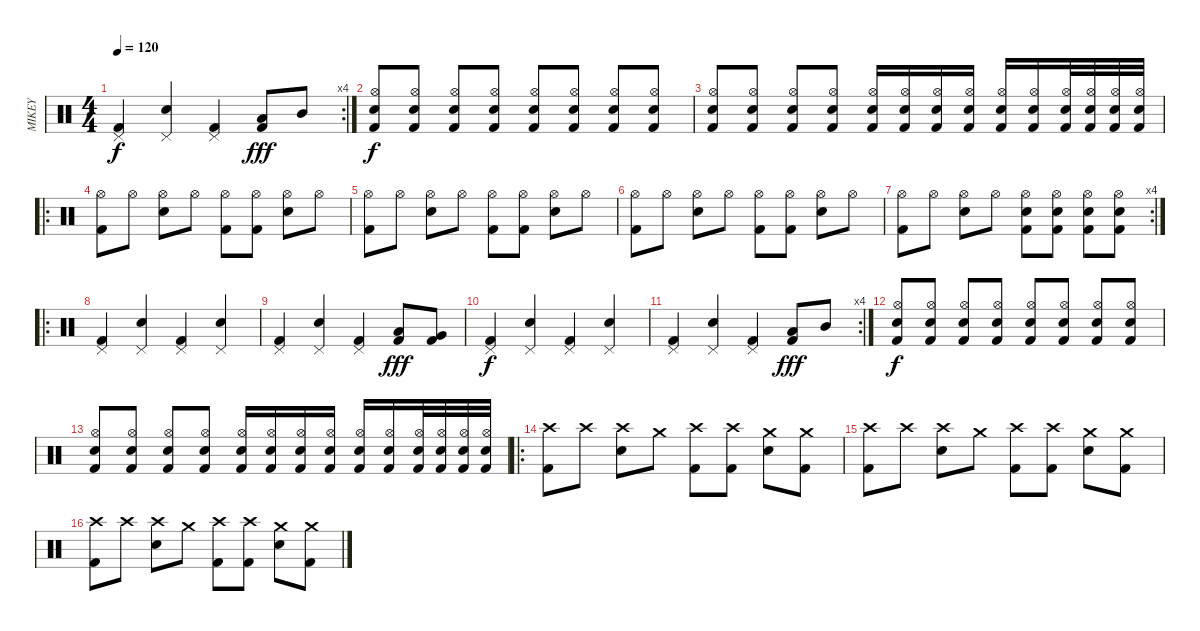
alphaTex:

\track ("MIKEY" "MIKEY") {instrument percussion}
\staff {score}
\articulation defaults
\rc 4
\ts (4 4)
\tempo 120
\clef neutral
\ks c
("Pedal Hi-Hat (hit)" "Kick (hit) 2").4{dy f} ("Pedal Hi-Hat (hit)" "Snare (hit) 2").4 ("Pedal Hi-Hat (hit)" "Kick (hit) 2").4 ("Low Tom (hit)" "Kick (hit) 2").8{dy fff} "Mid Tom (hit)".8 |
("Hi-Hat (open)" "Kick (hit) 2" "Electric Snare (hit)").8{dy f} ("Hi-Hat (open)" "Kick (hit) 2" "Electric Snare (hit)").8 ("Hi-Hat (open)" "Kick (hit) 2" "Electric Snare (hit)").8 ("Hi-Hat (open)" "Kick (hit) 2" "Electric Snare (hit)").8 ("Hi-Hat (open)" "Kick (hit) 2" "Electric Snare (hit)").8 ("Hi-Hat (open)" "Kick (hit) 2" "Electric Snare (hit)").8 ("Hi-Hat (open)" "Kick (hit) 2" "Electric Snare (hit)").8 ("Hi-Hat (open)" "Kick (hit) 2" "Electric Snare (hit)").8 |
("Hi-Hat (open)" "Kick (hit) 2" "Electric Snare (hit)").8 ("Hi-Hat (open)" "Kick (hit) 2" "Electric Snare (hit)").8 ("Hi-Hat (open)" "Kick (hit) 2" "Electric Snare (hit)").8 ("Hi-Hat (open)" "Kick (hit) 2" "Electric Snare (hit)").8 ("Hi-Hat (open)" "Kick (hit) 2" "Electric Snare (hit)").16 ("Hi-Hat (open)" "Kick (hit) 2" "Electric Snare (hit)").16 ("Hi-Hat (open)" "Kick (hit) 2" "Electric Snare (hit)").16 ("Hi-Hat (open)" "Kick (hit) 2" "Electric Snare (hit)").16 ("Hi-Hat (open)" "Kick (hit) 2" "Electric Snare (hit)").16 ("Hi-Hat (open)" "Kick (hit) 2" "Electric Snare (hit)").16 ("Hi-Hat (open)" "Kick (hit) 2" "Electric Snare (hit)").32 ("Hi-Hat (open)" "Kick (hit) 2" "Electric Snare (hit)").32 ("Hi-Hat (open)" "Kick (hit) 2" "Electric Snare (hit)").32 ("Hi-Hat (open)" "Kick (hit) 2" "Electric Snare (hit)").32 |
\ro
("Kick (hit) 2" "Hi-Hat (open)").8 "Hi-Hat (open)".8 ("Snare (hit) 2" "Hi-Hat (open)").8 "Hi-Hat (open)".8 ("Kick (hit) 2" "Hi-Hat (open)").8 ("Kick (hit) 2" "Hi-Hat (open)").8 ("Snare (hit) 2" "Hi-Hat (open)").8 "Hi-Hat (open)".8 |
("Kick (hit) 2" "Hi-Hat (open)").8 "Hi-Hat (open)".8 ("Snare (hit) 2" "Hi-Hat (open)").8 "Hi-Hat (open)".8 ("Kick (hit) 2" "Hi-Hat (open)").8 ("Kick (hit) 2" "Hi-Hat (open)").8 ("Snare (hit) 2" "Hi-Hat (open)").8 "Hi-Hat (open)".8 |
("Kick (hit) 2" "Hi-Hat (open)").8 "Hi-Hat (open)".8 ("Snare (hit) 2" "Hi-Hat (open)").8 "Hi-Hat (open)".8 ("Kick (hit) 2" "Hi-Hat (open)").8 ("Kick (hit) 2" "Hi-Hat (open)").8 ("Snare (hit) 2" "Hi-Hat (open)").8 "Hi-Hat (open)".8 |
\rc 4
("Kick (hit) 2" "Hi-Hat (open)").8 "Hi-Hat (open)".8 ("Snare (hit) 2" "Hi-Hat (open)").8 "Hi-Hat (open)".8 ("Kick (hit) 2" "Snare (hit) 2" "Hi-Hat (open)").8 ("Kick (hit) 2" "Snare (hit) 2" "Hi-Hat (open)").8 ("Kick (hit) 2" "Snare (hit) 2" "Hi-Hat (open)").8 ("Kick (hit) 2" "Snare (hit) 2" "Hi-Hat (open)").8 |
\ro
("Pedal Hi-Hat (hit)" "Kick (hit) 2").4 ("Pedal Hi-Hat (hit)" "Snare (hit) 2").4 ("Pedal Hi-Hat (hit)" "Kick (hit) 2").4 ("Pedal Hi-Hat (hit)" "Snare (hit) 2").4 |
("Pedal Hi-Hat (hit)" "Kick (hit) 2").4 ("Pedal Hi-Hat (hit)" "Snare (hit) 2").4 ("Pedal Hi-Hat (hit)" "Kick (hit) 2").4 ("Low Tom (hit)" "Kick (hit) 2").8{dy fff} ("Very Low Tom (hit)" "Kick (hit) 2").8 |
("Pedal Hi-Hat (hit)" "Kick (hit) 2").4{dy f} ("Pedal Hi-Hat (hit)" "Snare (hit) 2").4 ("Pedal Hi-Hat (hit)" "Kick (hit) 2").4 ("Pedal Hi-Hat (hit)" "Snare (hit) 2").4 |
\rc 4
("Pedal Hi-Hat (hit)" "Kick (hit) 2").4 ("Pedal Hi-Hat (hit)" "Snare (hit) 2").4 ("Pedal Hi-Hat (hit)" "Kick (hit) 2").4 ("Low Tom (hit)" "Kick (hit) 2").8{dy fff} "Mid Tom (hit)".8 |
("Hi-Hat (open)" "Kick (hit) 2" "Electric Snare (hit)").8{dy f} ("Hi-Hat (open)" "Kick (hit) 2" "Electric Snare (hit)").8 ("Hi-Hat (open)" "Kick (hit) 2" "Electric Snare (hit)").8 ("Hi-Hat (open)" "Kick (hit) 2" "Electric Snare (hit)").8 ("Hi-Hat (open)" "Kick (hit) 2" "Electric Snare (hit)").8 ("Hi-Hat (open)" "Kick (hit) 2" "Electric Snare (hit)").8 ("Hi-Hat (open)" "Kick (hit) 2" "Electric Snare (hit)").8 ("Hi-Hat (open)" "Kick (hit) 2" "Electric Snare (hit)").8 |
("Hi-Hat (open)" "Kick (hit) 2" "Electric Snare (hit)").8 ("Hi-Hat (open)" "Kick (hit) 2" "Electric Snare (hit)").8 ("Hi-Hat (open)" "Kick (hit) 2" "Electric Snare (hit)").8 ("Hi-Hat (open)" "Kick (hit) 2" "Electric Snare (hit)").8 ("Hi-Hat (open)" "Kick (hit) 2" "Electric Snare (hit)").16 ("Hi-Hat (open)" "Kick (hit) 2" "Electric Snare (hit)").16 ("Hi-Hat (open)" "Kick (hit) 2" "Electric Snare (hit)").16 ("Hi-Hat (open)" "Kick (hit) 2" "Electric Snare (hit)").16 ("Hi-Hat (open)" "Kick (hit) 2" "Electric Snare (hit)").16 ("Hi-Hat (open)" "Kick (hit) 2" "Electric Snare (hit)").16 ("Hi-Hat (open)" "Kick (hit) 2" "Electric Snare (hit)").32 ("Hi-Hat (open)" "Kick (hit) 2" "Electric Snare (hit)").32 ("Hi-Hat (open)" "Kick (hit) 2" "Electric Snare (hit)").32 ("Hi-Hat (open)" "Kick (hit) 2" "Electric Snare (hit)").32 |
\ro
("Kick (hit) 2" "Crash high (hit)").8 "Crash high (hit)".8 ("Snare (hit) 2" "Crash high (hit)").8 "Crash medium (hit)".8 ("Kick (hit) 2" "Crash high (hit)").8 ("Kick (hit) 2" "Crash high (hit)").8 ("Snare (hit) 2" "Crash medium (hit)").8 ("Kick (hit) 2" "Crash medium (hit)").8 |
("Kick (hit) 2" "Crash high (hit)").8 "Crash high (hit)".8 ("Snare (hit) 2" "Crash high (hit)").8 "Crash medium (hit)".8 ("Kick (hit) 2" "Crash high (hit)").8 ("Kick (hit) 2" "Crash high (hit)").8 ("Snare (hit) 2" "Crash medium (hit)").8 ("Kick (hit) 2" "Crash medium (hit)").8 |
("Kick (hit) 2" "Crash high (hit)").8 "Crash high (hit)".8 ("Snare (hit) 2" "Crash high (hit)").8 "Crash medium (hit)".8 ("Kick (hit) 2" "Crash high (hit)").8 ("Kick (hit) 2" "Crash high (hit)").8 ("Snare (hit) 2" "Crash medium (hit)").8 ("Kick (hit) 2" "Crash medium (hit)").8
